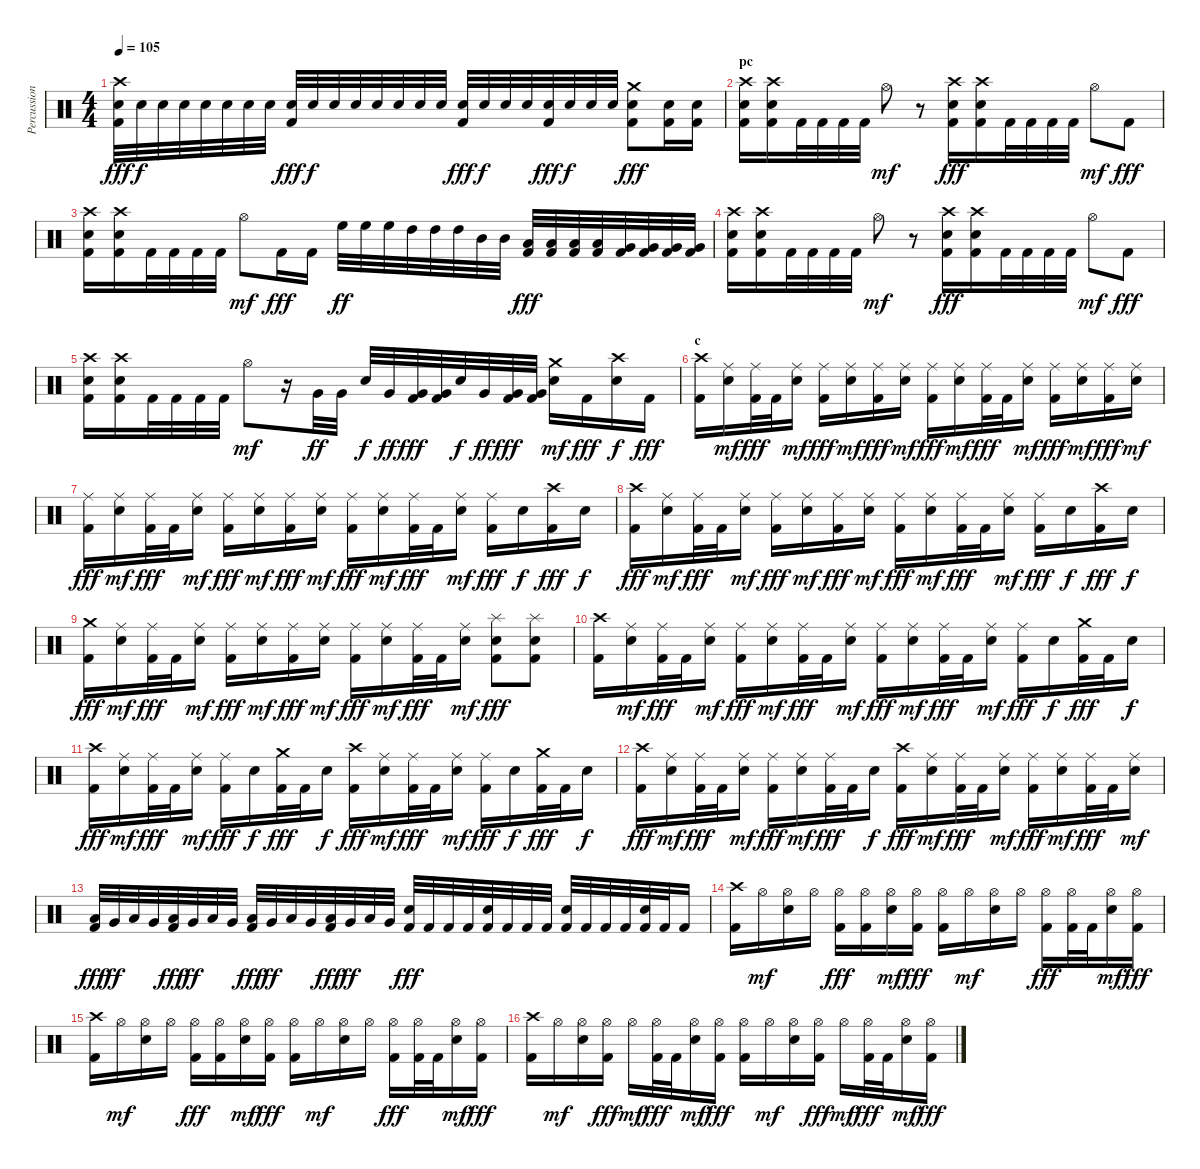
\track ("Percussion" "Percussion") {instrument percussion}
\staff {score}
\articulation defaults
\ts (4 4)
\tempo 105
\clef neutral
\ks c
("Crash high (hit)" "Snare (hit) 2" "Kick (hit) 2").32{dy fff} "Snare (hit) 2".32{dy f} "Snare (hit) 2".32 "Snare (hit) 2".32 "Snare (hit) 2".32 "Snare (hit) 2".32 "Snare (hit) 2".32 "Snare (hit) 2".32 ("Snare (hit) 2" "Kick (hit) 2").32{dy fff} "Snare (hit) 2".32{dy f} "Snare (hit) 2".32 "Snare (hit) 2".32 "Snare (hit) 2".32 "Snare (hit) 2".32 "Snare (hit) 2".32 "Snare (hit) 2".32 ("Snare (hit) 2" "Kick (hit) 2").32{dy fff} "Snare (hit) 2".32{dy f} "Snare (hit) 2".32 "Snare (hit) 2".32 ("Snare (hit) 2" "Kick (hit) 2").32{dy fff} "Snare (hit) 2".32{dy f} "Snare (hit) 2".32 "Snare (hit) 2".32 ("Crash medium (hit)" "Snare (hit) 2" "Kick (hit) 2").8{dy fff} ("Snare (hit) 2" "Kick (hit) 2").16 ("Snare (hit) 2" "Kick (hit) 2").16 |
\section ("" "pc")
("Crash high (hit)" "Snare (hit) 2" "Kick (hit) 2").16 ("Crash high (hit)" "Snare (hit) 2" "Kick (hit) 2").16 "Kick (hit) 2".32 "Kick (hit) 2".32 "Kick (hit) 2".32 "Kick (hit) 2".32 "Hi-Hat (open)".8{dy mf} r.8 ("Crash high (hit)" "Snare (hit) 2" "Kick (hit) 2").16{dy fff} ("Crash high (hit)" "Snare (hit) 2" "Kick (hit) 2").16 "Kick (hit) 2".32 "Kick (hit) 2".32 "Kick (hit) 2".32 "Kick (hit) 2".32 "Hi-Hat (open)".8{dy mf} "Kick (hit) 2".8{dy fff} |
("Crash high (hit)" "Snare (hit) 2" "Kick (hit) 2").16 ("Crash high (hit)" "Snare (hit) 2" "Kick (hit) 2").16 "Kick (hit) 2".32 "Kick (hit) 2".32 "Kick (hit) 2".32 "Kick (hit) 2".32 "Hi-Hat (open)".8{dy mf} "Kick (hit) 2".16{dy fff} "Kick (hit) 2".16 "High Floor Tom (hit)".32{dy ff} "High Floor Tom (hit)".32 "High Floor Tom (hit)".32 "High Tom (hit)".32 "High Tom (hit)".32 "High Tom (hit)".32 "Mid Tom (hit)".32 "Mid Tom (hit)".32 ("Low Floor Tom (hit)" "Kick (hit) 2").32{dy fff} ("Low Floor Tom (hit)" "Kick (hit) 2").32 ("Low Floor Tom (hit)" "Kick (hit) 2").32 ("Low Floor Tom (hit)" "Kick (hit) 2").32 ("Very Low Tom (hit)" "Kick (hit) 2").32 ("Very Low Tom (hit)" "Kick (hit) 2").32 ("Very Low Tom (hit)" "Kick (hit) 2").32 ("Very Low Tom (hit)" "Kick (hit) 2").32 |
("Crash high (hit)" "Snare (hit) 2" "Kick (hit) 2").16 ("Crash high (hit)" "Snare (hit) 2" "Kick (hit) 2").16 "Kick (hit) 2".32 "Kick (hit) 2".32 "Kick (hit) 2".32 "Kick (hit) 2".32 "Hi-Hat (open)".8{dy mf} r.8 ("Crash high (hit)" "Snare (hit) 2" "Kick (hit) 2").16{dy fff} ("Crash high (hit)" "Snare (hit) 2" "Kick (hit) 2").16 "Kick (hit) 2".32 "Kick (hit) 2".32 "Kick (hit) 2".32 "Kick (hit) 2".32 "Hi-Hat (open)".8{dy mf} "Kick (hit) 2".8{dy fff} |
("Crash high (hit)" "Snare (hit) 2" "Kick (hit) 2").16 ("Crash high (hit)" "Snare (hit) 2" "Kick (hit) 2").16 "Kick (hit) 2".32 "Kick (hit) 2".32 "Kick (hit) 2".32 "Kick (hit) 2".32 "Hi-Hat (open)".8{dy mf} r.16 "Very Low Tom (hit)".32{dy ff} "Very Low Tom (hit)".32 "Snare (hit) 2".32{dy f} "Very Low Tom (hit)".32{dy ff} ("Very Low Tom (hit)" "Kick (hit) 2").32{dy fff} ("Very Low Tom (hit)" "Kick (hit) 2").32 "Snare (hit) 2".32{dy f} "Very Low Tom (hit)".32{dy ff} ("Very Low Tom (hit)" "Kick (hit) 2").32{dy fff} ("Very Low Tom (hit)" "Kick (hit) 2").32 ("Crash medium (hit)" "Snare (hit) 2").16{dy mf} "Kick (hit) 2".16{dy fff} ("Crash high (hit)" "Snare (hit) 2").16{dy f} "Kick (hit) 2".16{dy fff} |
\section ("" "c")
("Crash high (hit)" "Kick (hit) 2").16 ("Ride (middle)" "Snare (hit) 2").16{dy mf} ("Ride (middle)" "Kick (hit) 2").32{dy fff} "Kick (hit) 2".32 ("Ride (middle)" "Snare (hit) 2").16{dy mf} ("Ride (middle)" "Kick (hit) 2").16{dy fff} ("Ride (middle)" "Snare (hit) 2").16{dy mf} ("Ride (middle)" "Kick (hit) 2").16{dy fff} ("Ride (middle)" "Snare (hit) 2").16{dy mf} ("Ride (middle)" "Kick (hit) 2").16{dy fff} ("Ride (middle)" "Snare (hit) 2").16{dy mf} ("Ride (middle)" "Kick (hit) 2").32{dy fff} "Kick (hit) 2".32 ("Ride (middle)" "Snare (hit) 2").16{dy mf} ("Ride (middle)" "Kick (hit) 2").16{dy fff} ("Ride (middle)" "Snare (hit) 2").16{dy mf} ("Ride (middle)" "Kick (hit) 2").16{dy fff} ("Ride (middle)" "Snare (hit) 2").16{dy mf} |
("Ride (middle)" "Kick (hit) 2").16{dy fff} ("Ride (middle)" "Snare (hit) 2").16{dy mf} ("Ride (middle)" "Kick (hit) 2").32{dy fff} "Kick (hit) 2".32 ("Ride (middle)" "Snare (hit) 2").16{dy mf} ("Ride (middle)" "Kick (hit) 2").16{dy fff} ("Ride (middle)" "Snare (hit) 2").16{dy mf} ("Ride (middle)" "Kick (hit) 2").16{dy fff} ("Ride (middle)" "Snare (hit) 2").16{dy mf} ("Ride (middle)" "Kick (hit) 2").16{dy fff} ("Ride (middle)" "Snare (hit) 2").16{dy mf} ("Ride (middle)" "Kick (hit) 2").32{dy fff} "Kick (hit) 2".32 ("Ride (middle)" "Snare (hit) 2").16{dy mf} ("Ride (middle)" "Kick (hit) 2").16{dy fff} "Snare (hit) 2".16{dy f} ("Crash high (hit)" "Kick (hit) 2").16{dy fff} "Snare (hit) 2".16{dy f} |
("Crash high (hit)" "Kick (hit) 2").16{dy fff} ("Ride (middle)" "Snare (hit) 2").16{dy mf} ("Ride (middle)" "Kick (hit) 2").32{dy fff} "Kick (hit) 2".32 ("Ride (middle)" "Snare (hit) 2").16{dy mf} ("Ride (middle)" "Kick (hit) 2").16{dy fff} ("Ride (middle)" "Snare (hit) 2").16{dy mf} ("Ride (middle)" "Kick (hit) 2").16{dy fff} ("Ride (middle)" "Snare (hit) 2").16{dy mf} ("Ride (middle)" "Kick (hit) 2").16{dy fff} ("Ride (middle)" "Snare (hit) 2").16{dy mf} ("Ride (middle)" "Kick (hit) 2").32{dy fff} "Kick (hit) 2".32 ("Ride (middle)" "Snare (hit) 2").16{dy mf} ("Ride (middle)" "Kick (hit) 2").16{dy fff} "Snare (hit) 2".16{dy f} ("Crash high (hit)" "Kick (hit) 2").16{dy fff} "Snare (hit) 2".16{dy f} |
("Crash medium (hit)" "Kick (hit) 2").16{dy fff} ("Ride (middle)" "Snare (hit) 2").16{dy mf} ("Ride (middle)" "Kick (hit) 2").32{dy fff} "Kick (hit) 2".32 ("Ride (middle)" "Snare (hit) 2").16{dy mf} ("Ride (middle)" "Kick (hit) 2").16{dy fff} ("Ride (middle)" "Snare (hit) 2").16{dy mf} ("Ride (middle)" "Kick (hit) 2").16{dy fff} ("Ride (middle)" "Snare (hit) 2").16{dy mf} ("Ride (middle)" "Kick (hit) 2").16{dy fff} ("Ride (middle)" "Snare (hit) 2").16{dy mf} ("Ride (middle)" "Kick (hit) 2").32{dy fff} "Kick (hit) 2".32 ("Ride (middle)" "Snare (hit) 2").16{dy mf} ("Splash (hit)" "Snare (hit) 2" "Kick (hit) 2").8{dy fff} ("Splash (hit)" "Snare (hit) 2" "Kick (hit) 2").8 |
("Crash high (hit)" "Kick (hit) 2").16 ("Ride (middle)" "Snare (hit) 2").16{dy mf} ("Ride (middle)" "Kick (hit) 2").32{dy fff} "Kick (hit) 2".32 ("Ride (middle)" "Snare (hit) 2").16{dy mf} ("Ride (middle)" "Kick (hit) 2").16{dy fff} ("Ride (middle)" "Snare (hit) 2").16{dy mf} ("Ride (middle)" "Kick (hit) 2").32{dy fff} "Kick (hit) 2".32 ("Ride (middle)" "Snare (hit) 2").16{dy mf} ("Ride (middle)" "Kick (hit) 2").16{dy fff} ("Ride (middle)" "Snare (hit) 2").16{dy mf} ("Ride (middle)" "Kick (hit) 2").32{dy fff} "Kick (hit) 2".32 ("Ride (middle)" "Snare (hit) 2").16{dy mf} ("Ride (middle)" "Kick (hit) 2").16{dy fff} "Snare (hit) 2".16{dy f} ("Crash medium (hit)" "Kick (hit) 2").32{dy fff} "Kick (hit) 2".32 "Snare (hit) 2".16{dy f} |
("Crash high (hit)" "Kick (hit) 2").16{dy fff} ("Ride (middle)" "Snare (hit) 2").16{dy mf} ("Ride (middle)" "Kick (hit) 2").32{dy fff} "Kick (hit) 2".32 ("Ride (middle)" "Snare (hit) 2").16{dy mf} ("Ride (middle)" "Kick (hit) 2").16{dy fff} "Snare (hit) 2".16{dy f} ("Crash medium (hit)" "Kick (hit) 2").32{dy fff} "Kick (hit) 2".32 "Snare (hit) 2".16{dy f} ("Crash high (hit)" "Kick (hit) 2").16{dy fff} ("Ride (middle)" "Snare (hit) 2").16{dy mf} ("Ride (middle)" "Kick (hit) 2").32{dy fff} "Kick (hit) 2".32 ("Ride (middle)" "Snare (hit) 2").16{dy mf} ("Ride (middle)" "Kick (hit) 2").16{dy fff} "Snare (hit) 2".16{dy f} ("Crash medium (hit)" "Kick (hit) 2").32{dy fff} "Kick (hit) 2".32 "Snare (hit) 2".16{dy f} |
("Crash high (hit)" "Kick (hit) 2").16{dy fff} ("Ride (middle)" "Snare (hit) 2").16{dy mf} ("Ride (middle)" "Kick (hit) 2").32{dy fff} "Kick (hit) 2".32 ("Ride (middle)" "Snare (hit) 2").16{dy mf} ("Ride (middle)" "Kick (hit) 2").16{dy fff} ("Ride (middle)" "Snare (hit) 2").16{dy mf} ("Ride (middle)" "Kick (hit) 2").32{dy fff} "Kick (hit) 2".32 "Snare (hit) 2".16{dy f} ("Crash high (hit)" "Kick (hit) 2").16{dy fff} ("Ride (middle)" "Snare (hit) 2").16{dy mf} ("Ride (middle)" "Kick (hit) 2").32{dy fff} "Kick (hit) 2".32 ("Ride (middle)" "Snare (hit) 2").16{dy mf} ("Ride (middle)" "Kick (hit) 2").16{dy fff} ("Ride (middle)" "Snare (hit) 2").16{dy mf} ("Ride (middle)" "Kick (hit) 2").32{dy fff} "Kick (hit) 2".32 ("Ride (middle)" "Snare (hit) 2").16{dy mf} |
("Low Tom (hit)" "Kick (hit) 2").32{dy fff} "Very Low Tom (hit)".32{dy ff} "Low Floor Tom (hit)".32 "Very Low Tom (hit)".32 ("Low Tom (hit)" "Kick (hit) 2").32{dy fff} "Very Low Tom (hit)".32{dy ff} "Low Floor Tom (hit)".32 "Very Low Tom (hit)".32 ("Low Tom (hit)" "Kick (hit) 2").32{dy fff} "Very Low Tom (hit)".32{dy ff} "Low Floor Tom (hit)".32 "Very Low Tom (hit)".32 ("Low Tom (hit)" "Kick (hit) 2").32{dy fff} "Very Low Tom (hit)".32{dy ff} "Low Floor Tom (hit)".32 "Very Low Tom (hit)".32 ("Snare (hit) 2" "Kick (hit) 2").32{dy fff} "Kick (hit) 2".32 "Kick (hit) 2".32 "Kick (hit) 2".32 ("Snare (hit) 2" "Kick (hit) 2").32 "Kick (hit) 2".32 "Kick (hit) 2".32 "Kick (hit) 2".32 ("Snare (hit) 2" "Kick (hit) 2").32 "Kick (hit) 2".32 "Kick (hit) 2".32 "Kick (hit) 2".32 ("Snare (hit) 2" "Kick (hit) 2").32 "Kick (hit) 2".32 "Kick (hit) 2".16 |
\section ("" "")
("Crash high (hit)" "Kick (hit) 2").16 "Hi-Hat (open)".16{dy mf} ("Hi-Hat (open)" "Snare (hit) 2").16 "Hi-Hat (open)".16 ("Hi-Hat (open)" "Kick (hit) 2").16{dy fff} ("Hi-Hat (open)" "Kick (hit) 2").16 ("Hi-Hat (open)" "Snare (hit) 2").16{dy mf} ("Hi-Hat (open)" "Kick (hit) 2").16{dy fff} ("Hi-Hat (open)" "Kick (hit) 2").16 "Hi-Hat (open)".16{dy mf} ("Hi-Hat (open)" "Snare (hit) 2").16 "Hi-Hat (open)".16 ("Hi-Hat (open)" "Kick (hit) 2").16{dy fff} ("Hi-Hat (open)" "Kick (hit) 2").32 "Kick (hit) 2".32 ("Hi-Hat (open)" "Snare (hit) 2").16{dy mf} ("Hi-Hat (open)" "Kick (hit) 2").16{dy fff} |
("Crash high (hit)" "Kick (hit) 2").16 "Hi-Hat (open)".16{dy mf} ("Hi-Hat (open)" "Snare (hit) 2").16 "Hi-Hat (open)".16 ("Hi-Hat (open)" "Kick (hit) 2").16{dy fff} ("Hi-Hat (open)" "Kick (hit) 2").16 ("Hi-Hat (open)" "Snare (hit) 2").16{dy mf} ("Hi-Hat (open)" "Kick (hit) 2").16{dy fff} ("Hi-Hat (open)" "Kick (hit) 2").16 "Hi-Hat (open)".16{dy mf} ("Hi-Hat (open)" "Snare (hit) 2").16 "Hi-Hat (open)".16 ("Hi-Hat (open)" "Kick (hit) 2").16{dy fff} ("Hi-Hat (open)" "Kick (hit) 2").32 "Kick (hit) 2".32 ("Hi-Hat (open)" "Snare (hit) 2").16{dy mf} ("Hi-Hat (open)" "Kick (hit) 2").16{dy fff} |
("Crash high (hit)" "Kick (hit) 2").16 "Hi-Hat (open)".16{dy mf} ("Hi-Hat (open)" "Snare (hit) 2").16 ("Hi-Hat (open)" "Kick (hit) 2").16{dy fff} "Hi-Hat (open)".16{dy mf} ("Hi-Hat (open)" "Kick (hit) 2").32{dy fff} "Kick (hit) 2".32 ("Hi-Hat (open)" "Snare (hit) 2").16{dy mf} ("Hi-Hat (open)" "Kick (hit) 2").16{dy fff} ("Hi-Hat (open)" "Kick (hit) 2").16 "Hi-Hat (open)".16{dy mf} ("Hi-Hat (open)" "Snare (hit) 2").16 ("Hi-Hat (open)" "Kick (hit) 2").16{dy fff} "Hi-Hat (open)".16{dy mf} ("Hi-Hat (open)" "Kick (hit) 2").32{dy fff} "Kick (hit) 2".32 ("Hi-Hat (open)" "Snare (hit) 2").16{dy mf} ("Hi-Hat (open)" "Kick (hit) 2").16{dy fff}
